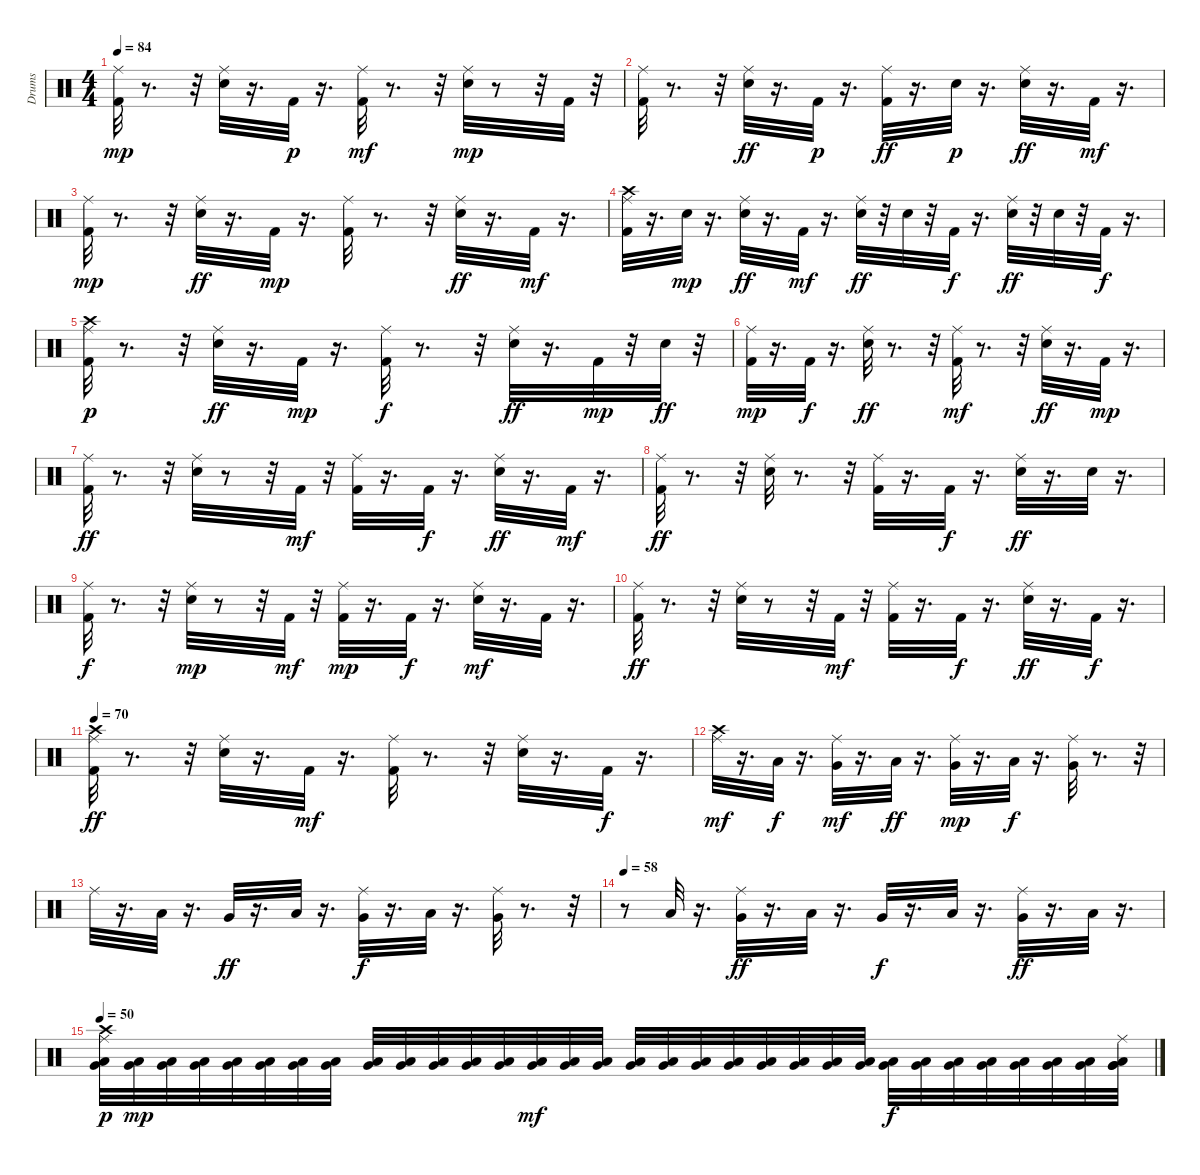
\track ("Drums" "Drums") {instrument percussion}
\staff {score}
\articulation defaults
\ts (4 4)
\tempo 84
\clef neutral
\ks c
("Kick (hit) 2" "Ride (middle)").32{dy mp} r.8{d} r.32 ("Snare (hit) 2" "Ride (middle)").32 r.16{d} "Kick (hit) 2".32{dy p} r.16{d} ("Kick (hit) 2" "Ride (middle)").32{dy mf} r.8{d} r.32 ("Snare (hit) 2" "Ride (middle)").32{dy mp} r.8 r.32 "Kick (hit) 2".32 r.32 |
("Kick (hit) 2" "Ride (middle)").32 r.8{d} r.32 ("Snare (hit) 2" "Ride (middle)").32{dy ff} r.16{d} "Kick (hit) 2".32{dy p} r.16{d} ("Kick (hit) 2" "Ride (middle)").32{dy ff} r.16{d} "Snare (hit) 2".32{dy p} r.16{d} ("Snare (hit) 2" "Ride (middle)").32{dy ff} r.16{d} "Kick (hit) 2".32{dy mf} r.16{d} |
("Kick (hit) 2" "Ride (middle)").32{dy mp} r.8{d} r.32 ("Snare (hit) 2" "Ride (middle)").32{dy ff} r.16{d} "Kick (hit) 2".32{dy mp} r.16{d} ("Kick (hit) 2" "Ride (middle)").32 r.8{d} r.32 ("Snare (hit) 2" "Ride (middle)").32{dy ff} r.16{d} "Kick (hit) 2".32{dy mf} r.16{d} |
("Kick (hit) 2" "Crash high (hit)" "Ride (middle)").32 r.16{d} "Snare (hit) 2".32{dy mp} r.16{d} ("Snare (hit) 2" "Ride (middle)").32{dy ff} r.16{d} "Kick (hit) 2".32{dy mf} r.16{d} ("Snare (hit) 2" "Ride (middle)").32{dy ff} r.32 "Snare (hit) 2".32 r.32 "Kick (hit) 2".32{dy f} r.16{d} ("Snare (hit) 2" "Ride (middle)").32{dy ff} r.32 "Snare (hit) 2".32 r.32 "Kick (hit) 2".32{dy f} r.16{d} |
("Kick (hit) 2" "Ride (middle)" "Crash high (hit)").32{dy p} r.8{d} r.32 ("Snare (hit) 2" "Ride (middle)").32{dy ff} r.16{d} "Kick (hit) 2".32{dy mp} r.16{d} ("Kick (hit) 2" "Ride (middle)").32{dy f} r.8{d} r.32 ("Snare (hit) 2" "Ride (middle)").32{dy ff} r.16{d} "Kick (hit) 2".32{dy mp} r.32 "Snare (hit) 2".32{dy ff} r.32 |
("Kick (hit) 2" "Ride (middle)").32{dy mp} r.16{d} "Kick (hit) 2".32{dy f} r.16{d} ("Snare (hit) 2" "Ride (middle)").32{dy ff} r.8{d} r.32 ("Kick (hit) 2" "Ride (middle)").32{dy mf} r.8{d} r.32 ("Snare (hit) 2" "Ride (middle)").32{dy ff} r.16{d} "Kick (hit) 2".32{dy mp} r.16{d} |
("Kick (hit) 2" "Ride (middle)").32{dy ff} r.8{d} r.32 ("Snare (hit) 2" "Ride (middle)").32 r.8 r.32 "Kick (hit) 2".32{dy mf} r.32 ("Kick (hit) 2" "Ride (middle)").32 r.16{d} "Kick (hit) 2".32{dy f} r.16{d} ("Snare (hit) 2" "Ride (middle)").32{dy ff} r.16{d} "Kick (hit) 2".32{dy mf} r.16{d} |
("Kick (hit) 2" "Ride (middle)").32{dy ff} r.8{d} r.32 ("Snare (hit) 2" "Ride (middle)").32 r.8{d} r.32 ("Kick (hit) 2" "Ride (middle)").32 r.16{d} "Kick (hit) 2".32{dy f} r.16{d} ("Snare (hit) 2" "Ride (middle)").32{dy ff} r.16{d} "Snare (hit) 2".32 r.16{d} |
("Kick (hit) 2" "Ride (middle)").32{dy f} r.8{d} r.32 ("Snare (hit) 2" "Ride (middle)").32{dy mp} r.8 r.32 "Kick (hit) 2".32{dy mf} r.32 ("Kick (hit) 2" "Ride (middle)").32{dy mp} r.16{d} "Kick (hit) 2".32{dy f} r.16{d} ("Snare (hit) 2" "Ride (middle)").32{dy mf} r.16{d} "Kick (hit) 2".32 r.16{d} |
("Kick (hit) 2" "Ride (middle)").32{dy ff} r.8{d} r.32 ("Snare (hit) 2" "Ride (middle)").32 r.8 r.32 "Kick (hit) 2".32{dy mf} r.32 ("Kick (hit) 2" "Ride (middle)").32 r.16{d} "Kick (hit) 2".32{dy f} r.16{d} ("Snare (hit) 2" "Ride (middle)").32{dy ff} r.16{d} "Kick (hit) 2".32{dy f} r.16{d} |
\tempo 70
("Kick (hit) 2" "Crash high (hit)" "Ride (middle)").32{dy ff} r.8{d} r.32 ("Snare (hit) 2" "Ride (middle)").32 r.16{d} "Kick (hit) 2".32{dy mf} r.16{d} ("Kick (hit) 2" "Ride (middle)").32 r.8{d} r.32 ("Snare (hit) 2" "Ride (middle)").32 r.16{d} "Kick (hit) 2".32{dy f} r.16{d} |
("Crash high (hit)" "Ride (middle)").32{dy mf} r.16{d} "Low Floor Tom (hit)".32{dy f} r.16{d} ("Very Low Tom (hit)" "Ride (middle)").32{dy mf} r.16{d} "Low Floor Tom (hit)".32{dy ff} r.16{d} ("Very Low Tom (hit)" "Ride (middle)").32{dy mp} r.16{d} "Low Floor Tom (hit)".32{dy f} r.16{d} ("Very Low Tom (hit)" "Ride (middle)").32 r.8{d} r.32 |
"Ride (middle)".32 r.16{d} "Low Floor Tom (hit)".32 r.16{d} "Very Low Tom (hit)".32{dy ff} r.16{d} "Low Floor Tom (hit)".32 r.16{d} ("Very Low Tom (hit)" "Ride (middle)").32{dy f} r.16{d} "Low Floor Tom (hit)".32 r.16{d} ("Very Low Tom (hit)" "Ride (middle)").32 r.8{d} r.32 |
\tempo 58
r.8 "Low Floor Tom (hit)".32 r.16{d} ("Very Low Tom (hit)" "Ride (middle)").32{dy ff} r.16{d} "Low Floor Tom (hit)".32 r.16{d} "Very Low Tom (hit)".32{dy f} r.16{d} "Low Floor Tom (hit)".32 r.16{d} ("Very Low Tom (hit)" "Ride (middle)").32{dy ff} r.16{d} "Low Floor Tom (hit)".32 r.16{d} |
\tempo 50
("Low Floor Tom (hit)" "Crash high (hit)" "Ride (middle)" "Very Low Tom (hit)").32{dy p} ("Low Floor Tom (hit)" "Very Low Tom (hit)").32{dy mp} ("Low Floor Tom (hit)" "Very Low Tom (hit)").32 ("Low Floor Tom (hit)" "Very Low Tom (hit)").32 ("Low Floor Tom (hit)" "Very Low Tom (hit)").32 ("Low Floor Tom (hit)" "Very Low Tom (hit)").32 ("Low Floor Tom (hit)" "Very Low Tom (hit)").32 ("Low Floor Tom (hit)" "Very Low Tom (hit)").32 ("Low Floor Tom (hit)" "Very Low Tom (hit)").32 ("Low Floor Tom (hit)" "Very Low Tom (hit)").32 ("Low Floor Tom (hit)" "Very Low Tom (hit)").32 ("Low Floor Tom (hit)" "Very Low Tom (hit)").32 ("Low Floor Tom (hit)" "Very Low Tom (hit)").32 ("Low Floor Tom (hit)" "Very Low Tom (hit)").32{dy mf} ("Low Floor Tom (hit)" "Very Low Tom (hit)").32 ("Low Floor Tom (hit)" "Very Low Tom (hit)").32 ("Low Floor Tom (hit)" "Very Low Tom (hit)").32 ("Low Floor Tom (hit)" "Very Low Tom (hit)").32 ("Low Floor Tom (hit)" "Very Low Tom (hit)").32 ("Low Floor Tom (hit)" "Very Low Tom (hit)").32 ("Low Floor Tom (hit)" "Very Low Tom (hit)").32 ("Low Floor Tom (hit)" "Very Low Tom (hit)").32 ("Low Floor Tom (hit)" "Very Low Tom (hit)").32 ("Low Floor Tom (hit)" "Very Low Tom (hit)").32 ("Low Floor Tom (hit)" "Very Low Tom (hit)").32{dy f} ("Low Floor Tom (hit)" "Very Low Tom (hit)").32 ("Low Floor Tom (hit)" "Very Low Tom (hit)").32 ("Low Floor Tom (hit)" "Very Low Tom (hit)").32 ("Low Floor Tom (hit)" "Very Low Tom (hit)").32 ("Low Floor Tom (hit)" "Very Low Tom (hit)").32 ("Low Floor Tom (hit)" "Very Low Tom (hit)").32 ("Low Floor Tom (hit)" "Very Low Tom (hit)" "Ride (middle)" "Very Low Tom (hit)").32
